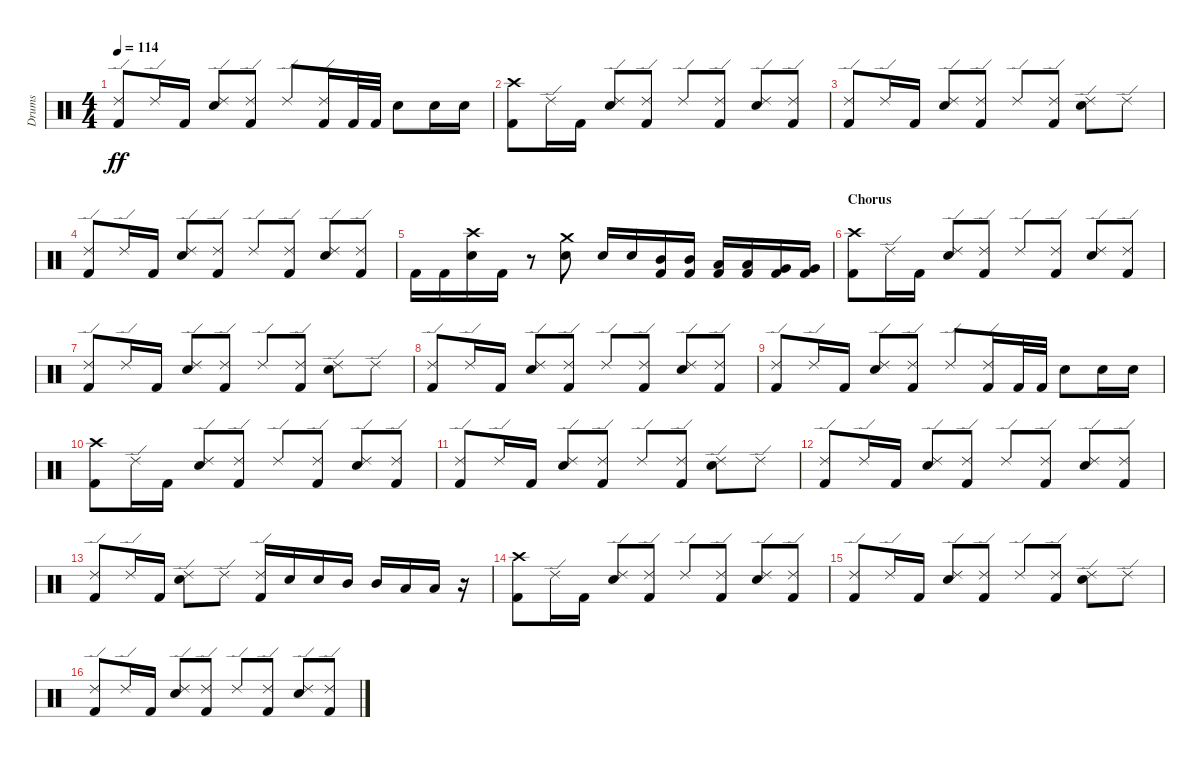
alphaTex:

\track ("Drums               " "Drums     ") {instrument percussion}
\staff {score}
\articulation defaults
\ts (4 4)
\tempo 114
\clef neutral
\ks c
("Kick (hit) 2" "Ride (edge) 2").8{dy ff} "Ride (edge) 2".16 "Kick (hit) 2".16 ("Electric Snare (hit)" "Ride (edge) 2").8 ("Kick (hit) 2" "Ride (edge) 2").8 "Ride (edge) 2".8 ("Kick (hit) 2" "Ride (edge) 2").16 "Kick (hit) 2".32 "Kick (hit) 2".32 "Electric Snare (hit)".8 "Electric Snare (hit)".16 "Electric Snare (hit)".16 |
("Kick (hit) 2" "Crash high (hit)").8 "Ride (edge) 2".16 "Kick (hit) 2".16 ("Electric Snare (hit)" "Ride (edge) 2").8 ("Kick (hit) 2" "Ride (edge) 2").8 "Ride (edge) 2".8 ("Kick (hit) 2" "Ride (edge) 2").8 ("Ride (edge) 2" "Electric Snare (hit)").8 ("Kick (hit) 2" "Ride (edge) 2").8 |
("Kick (hit) 2" "Ride (edge) 2").8 "Ride (edge) 2".16 "Kick (hit) 2".16 ("Electric Snare (hit)" "Ride (edge) 2").8 ("Kick (hit) 2" "Ride (edge) 2").8 "Ride (edge) 2".8 ("Ride (edge) 2" "Kick (hit) 2").8 ("Ride (edge) 2" "Electric Snare (hit)").8 "Ride (edge) 2".8 |
("Kick (hit) 2" "Ride (edge) 2").8 "Ride (edge) 2".16 "Kick (hit) 2".16 ("Electric Snare (hit)" "Ride (edge) 2").8 ("Kick (hit) 2" "Ride (edge) 2").8 "Ride (edge) 2".8 ("Kick (hit) 2" "Ride (edge) 2").8 ("Ride (edge) 2" "Electric Snare (hit)").8 ("Kick (hit) 2" "Ride (edge) 2").8 |
"Kick (hit) 2".16 "Kick (hit) 2".16 ("Crash high (hit)" "Electric Snare (hit)").16 "Kick (hit) 2".16 r.8 ("Crash medium (hit)" "Electric Snare (hit)").8 "Electric Snare (hit)".16 "Electric Snare (hit)".16 ("Kick (hit) 2" "Mid Tom (hit)").16 ("Kick (hit) 2" "Mid Tom (hit)").16 ("Kick (hit) 2" "Low Tom (hit)").16 ("Kick (hit) 2" "Low Tom (hit)").16 ("Kick (hit) 2" "Very Low Tom (hit)").16 ("Kick (hit) 2" "Very Low Tom (hit)").16 |
\section ("" "Chorus")
("Kick (hit) 2" "Crash high (hit)").8 "Ride (edge) 2".16 "Kick (hit) 2".16 ("Electric Snare (hit)" "Ride (edge) 2").8 ("Kick (hit) 2" "Ride (edge) 2").8 "Ride (edge) 2".8 ("Kick (hit) 2" "Ride (edge) 2").8 ("Ride (edge) 2" "Electric Snare (hit)").8 ("Kick (hit) 2" "Ride (edge) 2").8 |
("Kick (hit) 2" "Ride (edge) 2").8 "Ride (edge) 2".16 "Kick (hit) 2".16 ("Electric Snare (hit)" "Ride (edge) 2").8 ("Kick (hit) 2" "Ride (edge) 2").8 "Ride (edge) 2".8 ("Ride (edge) 2" "Kick (hit) 2").8 ("Ride (edge) 2" "Electric Snare (hit)").8 "Ride (edge) 2".8 |
("Kick (hit) 2" "Ride (edge) 2").8 "Ride (edge) 2".16 "Kick (hit) 2".16 ("Electric Snare (hit)" "Ride (edge) 2").8 ("Kick (hit) 2" "Ride (edge) 2").8 "Ride (edge) 2".8 ("Kick (hit) 2" "Ride (edge) 2").8 ("Ride (edge) 2" "Electric Snare (hit)").8 ("Kick (hit) 2" "Ride (edge) 2").8 |
("Kick (hit) 2" "Ride (edge) 2").8 "Ride (edge) 2".16 "Kick (hit) 2".16 ("Electric Snare (hit)" "Ride (edge) 2").8 ("Kick (hit) 2" "Ride (edge) 2").8 "Ride (edge) 2".8 ("Ride (edge) 2" "Kick (hit) 2").16 "Kick (hit) 2".32 "Kick (hit) 2".32 "Electric Snare (hit)".8 "Electric Snare (hit)".16 "Electric Snare (hit)".16 |
("Kick (hit) 2" "Crash high (hit)").8 "Ride (edge) 2".16 "Kick (hit) 2".16 ("Ride (edge) 2" "Electric Snare (hit)").8 ("Ride (edge) 2" "Kick (hit) 2").8 "Ride (edge) 2".8 ("Kick (hit) 2" "Ride (edge) 2").8 ("Ride (edge) 2" "Electric Snare (hit)").8 ("Kick (hit) 2" "Ride (edge) 2").8 |
("Kick (hit) 2" "Ride (edge) 2").8 "Ride (edge) 2".16 "Kick (hit) 2".16 ("Ride (edge) 2" "Electric Snare (hit)").8 ("Kick (hit) 2" "Ride (edge) 2").8 "Ride (edge) 2".8 ("Kick (hit) 2" "Ride (edge) 2").8 ("Ride (edge) 2" "Electric Snare (hit)").8 "Ride (edge) 2".8 |
("Ride (edge) 2" "Kick (hit) 2").8 "Ride (edge) 2".16 "Kick (hit) 2".16 ("Electric Snare (hit)" "Ride (edge) 2").8 ("Kick (hit) 2" "Ride (edge) 2").8 "Ride (edge) 2".8 ("Ride (edge) 2" "Kick (hit) 2").8 ("Electric Snare (hit)" "Ride (edge) 2").8 ("Kick (hit) 2" "Ride (edge) 2").8 |
("Ride (edge) 2" "Kick (hit) 2").8 "Ride (edge) 2".16 "Kick (hit) 2".16 ("Electric Snare (hit)" "Ride (edge) 2").8 "Ride (edge) 2".8 ("Ride (edge) 2" "Kick (hit) 2").16 "Electric Snare (hit)".16 "Electric Snare (hit)".16 "Mid Tom (hit)".16 "Mid Tom (hit)".16 "Low Tom (hit)".16 "Low Tom (hit)".16 r.16 |
("Kick (hit) 2" "Crash high (hit)").8 "Ride (edge) 2".16 "Kick (hit) 2".16 ("Electric Snare (hit)" "Ride (edge) 2").8 ("Kick (hit) 2" "Ride (edge) 2").8 "Ride (edge) 2".8 ("Kick (hit) 2" "Ride (edge) 2").8 ("Ride (edge) 2" "Electric Snare (hit)").8 ("Kick (hit) 2" "Ride (edge) 2").8 |
("Kick (hit) 2" "Ride (edge) 2").8 "Ride (edge) 2".16 "Kick (hit) 2".16 ("Electric Snare (hit)" "Ride (edge) 2").8 ("Kick (hit) 2" "Ride (edge) 2").8 "Ride (edge) 2".8 ("Ride (edge) 2" "Kick (hit) 2").8 ("Ride (edge) 2" "Electric Snare (hit)").8 "Ride (edge) 2".8 |
("Kick (hit) 2" "Ride (edge) 2").8 "Ride (edge) 2".16 "Kick (hit) 2".16 ("Electric Snare (hit)" "Ride (edge) 2").8 ("Kick (hit) 2" "Ride (edge) 2").8 "Ride (edge) 2".8 ("Kick (hit) 2" "Ride (edge) 2").8 ("Ride (edge) 2" "Electric Snare (hit)").8 ("Kick (hit) 2" "Ride (edge) 2").8
